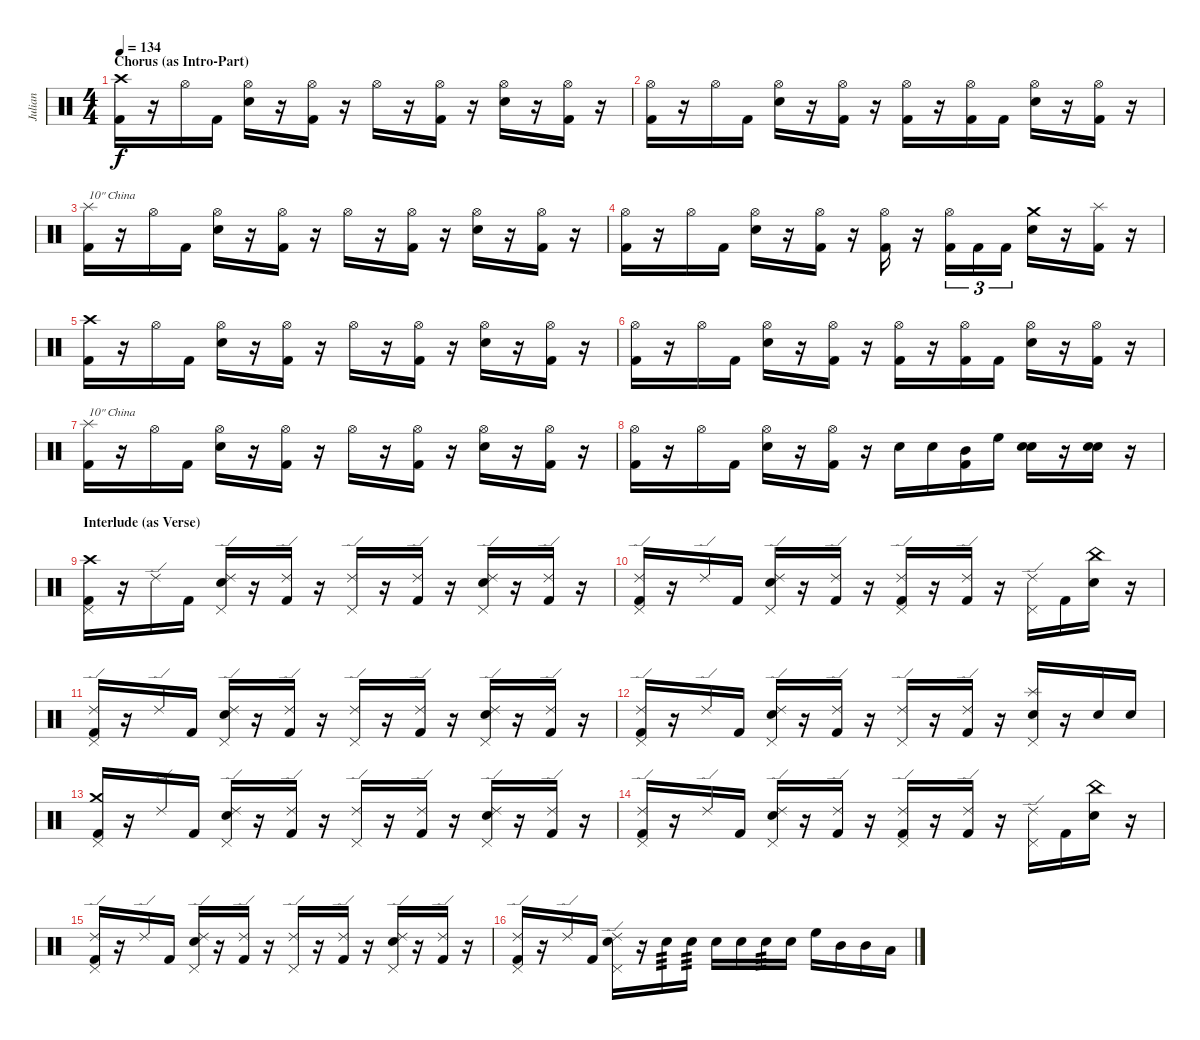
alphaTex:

\track ("Julian" "Julian") {instrument percussion}
\staff {score}
\articulation defaults
\ts (4 4)
\section ("" "Chorus (as Intro-Part)")
\tempo 134
\clef neutral
\ks c
("Crash high (hit)" "Kick (hit) 2").16{dy f} r.16 "Hi-Hat (open)".16 "Kick (hit) 2".16 ("Hi-Hat (open)" "Electric Snare (hit)").16 r.16 ("Hi-Hat (open)" "Kick (hit) 2").16 r.16 "Hi-Hat (open)".16 r.16 ("Hi-Hat (open)" "Kick (hit) 2").16 r.16 ("Hi-Hat (open)" "Electric Snare (hit)").16 r.16 ("Hi-Hat (open)" "Kick (hit) 2").16 r.16 |
("Hi-Hat (open)" "Kick (hit) 2").16 r.16 "Hi-Hat (open)".16 "Kick (hit) 2".16 ("Hi-Hat (open)" "Electric Snare (hit)").16 r.16 ("Hi-Hat (open)" "Kick (hit) 2").16 r.16 ("Hi-Hat (open)" "Kick (hit) 2").16 r.16 ("Hi-Hat (open)" "Kick (hit) 2").16 "Kick (hit) 2".16 ("Hi-Hat (open)" "Electric Snare (hit)").16 r.16 ("Hi-Hat (open)" "Kick (hit) 2").16 r.16 |
("Splash (hit)" "Kick (hit) 2").16{txt "10\" China"} r.16 "Hi-Hat (open)".16 "Kick (hit) 2".16 ("Hi-Hat (open)" "Electric Snare (hit)").16 r.16 ("Hi-Hat (open)" "Kick (hit) 2").16 r.16 "Hi-Hat (open)".16 r.16 ("Hi-Hat (open)" "Kick (hit) 2").16 r.16 ("Hi-Hat (open)" "Electric Snare (hit)").16 r.16 ("Hi-Hat (open)" "Kick (hit) 2").16 r.16 |
("Hi-Hat (open)" "Kick (hit) 2").16 r.16 "Hi-Hat (open)".16 "Kick (hit) 2".16 ("Hi-Hat (open)" "Electric Snare (hit)").16 r.16 ("Hi-Hat (open)" "Kick (hit) 2").16 r.16 ("Hi-Hat (open)" "Kick (hit) 2").16 r.16 ("Hi-Hat (open)" "Kick (hit) 2").16{tu (3 2)} "Kick (hit) 2".16{tu (3 2)} "Kick (hit) 2".16{tu (3 2)} ("Crash medium (hit)" "Electric Snare (hit)").16 r.16 ("Splash (hit)" "Kick (hit) 2").16 r.16 |
("Crash high (hit)" "Kick (hit) 2").16 r.16 "Hi-Hat (open)".16 "Kick (hit) 2".16 ("Hi-Hat (open)" "Electric Snare (hit)").16 r.16 ("Hi-Hat (open)" "Kick (hit) 2").16 r.16 "Hi-Hat (open)".16 r.16 ("Hi-Hat (open)" "Kick (hit) 2").16 r.16 ("Hi-Hat (open)" "Electric Snare (hit)").16 r.16 ("Hi-Hat (open)" "Kick (hit) 2").16 r.16 |
("Hi-Hat (open)" "Kick (hit) 2").16 r.16 "Hi-Hat (open)".16 "Kick (hit) 2".16 ("Hi-Hat (open)" "Electric Snare (hit)").16 r.16 ("Hi-Hat (open)" "Kick (hit) 2").16 r.16 ("Hi-Hat (open)" "Kick (hit) 2").16 r.16 ("Hi-Hat (open)" "Kick (hit) 2").16 "Kick (hit) 2".16 ("Hi-Hat (open)" "Electric Snare (hit)").16 r.16 ("Hi-Hat (open)" "Kick (hit) 2").16 r.16 |
("Splash (hit)" "Kick (hit) 2").16{txt "10\" China"} r.16 "Hi-Hat (open)".16 "Kick (hit) 2".16 ("Hi-Hat (open)" "Electric Snare (hit)").16 r.16 ("Hi-Hat (open)" "Kick (hit) 2").16 r.16 "Hi-Hat (open)".16 r.16 ("Hi-Hat (open)" "Kick (hit) 2").16 r.16 ("Hi-Hat (open)" "Electric Snare (hit)").16 r.16 ("Hi-Hat (open)" "Kick (hit) 2").16 r.16 |
("Hi-Hat (open)" "Kick (hit) 2").16 r.16 "Hi-Hat (open)".16 "Kick (hit) 2".16 ("Hi-Hat (open)" "Electric Snare (hit)").16 r.16 ("Hi-Hat (open)" "Kick (hit) 2").16 r.16 "Electric Snare (hit)".16 "Electric Snare (hit)".16 ("Mid Tom (hit)" "Kick (hit) 2").16 "High Floor Tom (hit)".16 ("Electric Snare (hit)" "Electric Snare (hit)").16 r.16 ("Electric Snare (hit)" "Electric Snare (hit)").16 r.16 |
\section ("" "Interlude (as Verse)")
("Crash high (hit)" "Pedal Hi-Hat (hit)" "Kick (hit) 2").16 r.16 "Ride (edge) 2".16 "Kick (hit) 2".16 ("Ride (edge) 2" "Electric Snare (hit)" "Pedal Hi-Hat (hit)").16 r.16 ("Ride (edge) 2" "Kick (hit) 2").16 r.16 ("Ride (edge) 2" "Pedal Hi-Hat (hit)").16 r.16 ("Ride (edge) 2" "Kick (hit) 2").16 r.16 ("Ride (edge) 2" "Electric Snare (hit)" "Pedal Hi-Hat (hit)").16 r.16 ("Ride (edge) 2" "Kick (hit) 2").16 r.16 |
("Ride (edge) 2" "Pedal Hi-Hat (hit)" "Kick (hit) 2").16 r.16 "Ride (edge) 2".16 "Kick (hit) 2".16 ("Ride (edge) 2" "Electric Snare (hit)" "Pedal Hi-Hat (hit)").16 r.16 ("Ride (edge) 2" "Kick (hit) 2").16 r.16 ("Ride (edge) 2" "Pedal Hi-Hat (hit)" "Kick (hit) 2").16 r.16 ("Ride (edge) 2" "Kick (hit) 2").16 r.16 ("Ride (edge) 2" "Pedal Hi-Hat (hit)").16 "Kick (hit) 2".16 ("China (hit)" "Electric Snare (hit)").16 r.16 |
("Ride (edge) 2" "Pedal Hi-Hat (hit)" "Kick (hit) 2").16 r.16 "Ride (edge) 2".16 "Kick (hit) 2".16 ("Ride (edge) 2" "Electric Snare (hit)" "Pedal Hi-Hat (hit)").16 r.16 ("Ride (edge) 2" "Kick (hit) 2").16 r.16 ("Ride (edge) 2" "Pedal Hi-Hat (hit)").16 r.16 ("Ride (edge) 2" "Kick (hit) 2").16 r.16 ("Ride (edge) 2" "Electric Snare (hit)" "Pedal Hi-Hat (hit)").16 r.16 ("Ride (edge) 2" "Kick (hit) 2").16 r.16 |
("Ride (edge) 2" "Pedal Hi-Hat (hit)" "Kick (hit) 2").16 r.16 "Ride (edge) 2".16 "Kick (hit) 2".16 ("Ride (edge) 2" "Electric Snare (hit)" "Pedal Hi-Hat (hit)").16 r.16 ("Ride (edge) 2" "Kick (hit) 2").16 r.16 ("Ride (edge) 2" "Pedal Hi-Hat (hit)").16 r.16 ("Ride (edge) 2" "Kick (hit) 2").16 r.16 ("Splash (hit)" "Electric Snare (hit)" "Pedal Hi-Hat (hit)").16 r.16 "Electric Snare (hit)".16 "Electric Snare (hit)".16 |
("Crash medium (hit)" "Pedal Hi-Hat (hit)" "Kick (hit) 2").16 r.16 "Ride (edge) 2".16 "Kick (hit) 2".16 ("Ride (edge) 2" "Electric Snare (hit)" "Pedal Hi-Hat (hit)").16 r.16 ("Ride (edge) 2" "Kick (hit) 2").16 r.16 ("Ride (edge) 2" "Pedal Hi-Hat (hit)").16 r.16 ("Ride (edge) 2" "Kick (hit) 2").16 r.16 ("Ride (edge) 2" "Electric Snare (hit)" "Pedal Hi-Hat (hit)").16 r.16 ("Ride (edge) 2" "Kick (hit) 2").16 r.16 |
("Ride (edge) 2" "Pedal Hi-Hat (hit)" "Kick (hit) 2").16 r.16 "Ride (edge) 2".16 "Kick (hit) 2".16 ("Ride (edge) 2" "Electric Snare (hit)" "Pedal Hi-Hat (hit)").16 r.16 ("Ride (edge) 2" "Kick (hit) 2").16 r.16 ("Ride (edge) 2" "Pedal Hi-Hat (hit)" "Kick (hit) 2").16 r.16 ("Ride (edge) 2" "Kick (hit) 2").16 r.16 ("Ride (edge) 2" "Pedal Hi-Hat (hit)").16 "Kick (hit) 2".16 ("China (hit)" "Electric Snare (hit)").16 r.16 |
("Ride (edge) 2" "Pedal Hi-Hat (hit)" "Kick (hit) 2").16 r.16 "Ride (edge) 2".16 "Kick (hit) 2".16 ("Ride (edge) 2" "Electric Snare (hit)" "Pedal Hi-Hat (hit)").16 r.16 ("Ride (edge) 2" "Kick (hit) 2").16 r.16 ("Ride (edge) 2" "Pedal Hi-Hat (hit)").16 r.16 ("Ride (edge) 2" "Kick (hit) 2").16 r.16 ("Ride (edge) 2" "Electric Snare (hit)" "Pedal Hi-Hat (hit)").16 r.16 ("Ride (edge) 2" "Kick (hit) 2").16 r.16 |
("Ride (edge) 2" "Pedal Hi-Hat (hit)" "Kick (hit) 2").16 r.16 "Ride (edge) 2".16 "Kick (hit) 2".16 ("Ride (edge) 2" "Electric Snare (hit)" "Pedal Hi-Hat (hit)").16 r.16 "Electric Snare (hit)".16{tp 3} "Electric Snare (hit)".16{tp 3} "Electric Snare (hit)".16 "Electric Snare (hit)".16 "Electric Snare (hit)".16{tp 3} "Electric Snare (hit)".16 "High Floor Tom (hit)".16 "Mid Tom (hit)".16 "Mid Tom (hit)".16 "Low Tom (hit)".16
